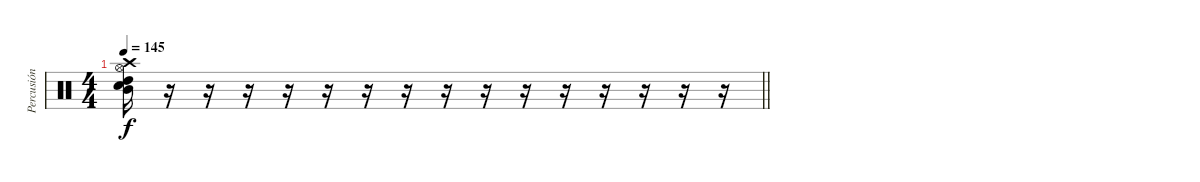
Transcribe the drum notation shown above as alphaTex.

\track ("Percusión" "Percusión") {instrument percussion}
\staff {score}
\articulation defaults
\ts (4 4)
\tempo 145
\clef neutral
\barLineRight lightlight
\ks c
("Hi-Hat (open)" "Mid Tom (hit)" "High Tom (hit)" "Crash high (hit)" "Snare (hit) 2").16{dy f} r.16 r.16 r.16 r.16 r.16 r.16 r.16 r.16 r.16 r.16 r.16 r.16 r.16 r.16 r.16
